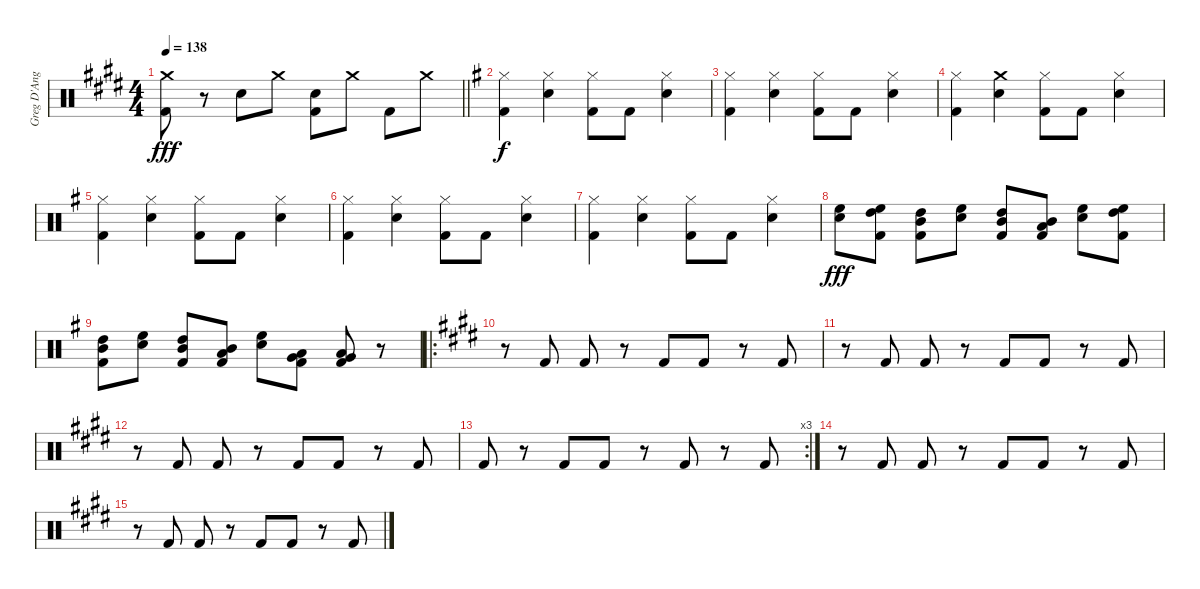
\track ("Greg D'Angelo" "Greg D'Ang") {instrument percussion}
\staff {score}
\articulation defaults
\ts (4 4)
\tempo 138
\clef neutral
\barLineRight lightlight
\ks c#minor
("Crash medium (hit)" "Kick (hit) 2").8{dy fff} r.8 "Snare (hit) 2".8 "Crash medium (hit)".8 ("Snare (hit) 2" "Kick (hit) 2").8 "Crash medium (hit)".8 "Kick (hit) 2".8 "Crash medium (hit)".8 |
\ks g
("Hi-Hat (closed)" "Kick (hit) 2").4{dy f} ("Hi-Hat (closed)" "Snare (hit) 2").4 ("Hi-Hat (closed)" "Kick (hit) 2").8 "Kick (hit) 2".8 ("Hi-Hat (closed)" "Snare (hit) 2").4 |
("Hi-Hat (closed)" "Kick (hit) 2").4 ("Hi-Hat (closed)" "Snare (hit) 2").4 ("Hi-Hat (closed)" "Kick (hit) 2").8 "Kick (hit) 2".8 ("Hi-Hat (closed)" "Snare (hit) 2").4 |
("Hi-Hat (closed)" "Kick (hit) 2").4 ("Crash medium (hit)" "Snare (hit) 2").4 ("Hi-Hat (closed)" "Kick (hit) 2").8 "Kick (hit) 2".8 ("Hi-Hat (closed)" "Snare (hit) 2").4 |
("Hi-Hat (closed)" "Kick (hit) 2").4 ("Hi-Hat (closed)" "Snare (hit) 2").4 ("Hi-Hat (closed)" "Kick (hit) 2").8 "Kick (hit) 2".8 ("Hi-Hat (closed)" "Snare (hit) 2").4 |
("Hi-Hat (closed)" "Kick (hit) 2").4 ("Hi-Hat (closed)" "Snare (hit) 2").4 ("Hi-Hat (closed)" "Kick (hit) 2").8 "Kick (hit) 2".8 ("Hi-Hat (closed)" "Snare (hit) 2").4 |
("Hi-Hat (closed)" "Kick (hit) 2").4 ("Hi-Hat (closed)" "Snare (hit) 2").4 ("Hi-Hat (closed)" "Kick (hit) 2").8 "Kick (hit) 2".8 ("Hi-Hat (closed)" "Snare (hit) 2").4 |
("Snare (hit) 2" "High Floor Tom (hit)").8{dy fff} ("High Floor Tom (hit)" "High Tom (hit)" "Kick (hit) 2").8 ("High Tom (hit)" "Mid Tom (hit)" "Kick (hit) 2").8 ("Snare (hit) 2" "High Floor Tom (hit)").8 ("High Tom (hit)" "Mid Tom (hit)" "Kick (hit) 2").8 ("Mid Tom (hit)" "Low Tom (hit)" "Kick (hit) 2").8 ("Snare (hit) 2" "High Floor Tom (hit)").8 ("High Floor Tom (hit)" "High Tom (hit)" "Kick (hit) 2").8 |
("High Tom (hit)" "Mid Tom (hit)" "Kick (hit) 2").8 ("Snare (hit) 2" "High Floor Tom (hit)").8 ("High Tom (hit)" "Mid Tom (hit)" "Kick (hit) 2").8 ("Mid Tom (hit)" "Low Tom (hit)" "Kick (hit) 2").8 ("Snare (hit) 2" "High Floor Tom (hit)").8 ("Low Tom (hit)" "Very Low Tom (hit)" "Kick (hit) 2").8 ("Very Low Tom (hit)" "Low Floor Tom (hit)" "Kick (hit) 2").8 r.8 |
\ro
\ks e
r.8 "Kick (hit) 2".8 "Kick (hit) 2".8 r.8 "Kick (hit) 2".8 "Kick (hit) 2".8 r.8 "Kick (hit) 2".8 |
\ks c#minor
r.8 "Kick (hit) 2".8 "Kick (hit) 2".8 r.8 "Kick (hit) 2".8 "Kick (hit) 2".8 r.8 "Kick (hit) 2".8 |
r.8 "Kick (hit) 2".8 "Kick (hit) 2".8 r.8 "Kick (hit) 2".8 "Kick (hit) 2".8 r.8 "Kick (hit) 2".8 |
\rc 3 "Kick (hit) 2".8
r.8 "Kick (hit) 2".8 "Kick (hit) 2".8 r.8 "Kick (hit) 2".8 r.8 "Kick (hit) 2".8 |
\ks e
r.8 "Kick (hit) 2".8 "Kick (hit) 2".8 r.8 "Kick (hit) 2".8 "Kick (hit) 2".8 r.8 "Kick (hit) 2".8 |
\ks c#minor
r.8 "Kick (hit) 2".8 "Kick (hit) 2".8 r.8 "Kick (hit) 2".8 "Kick (hit) 2".8 r.8 "Kick (hit) 2".8
